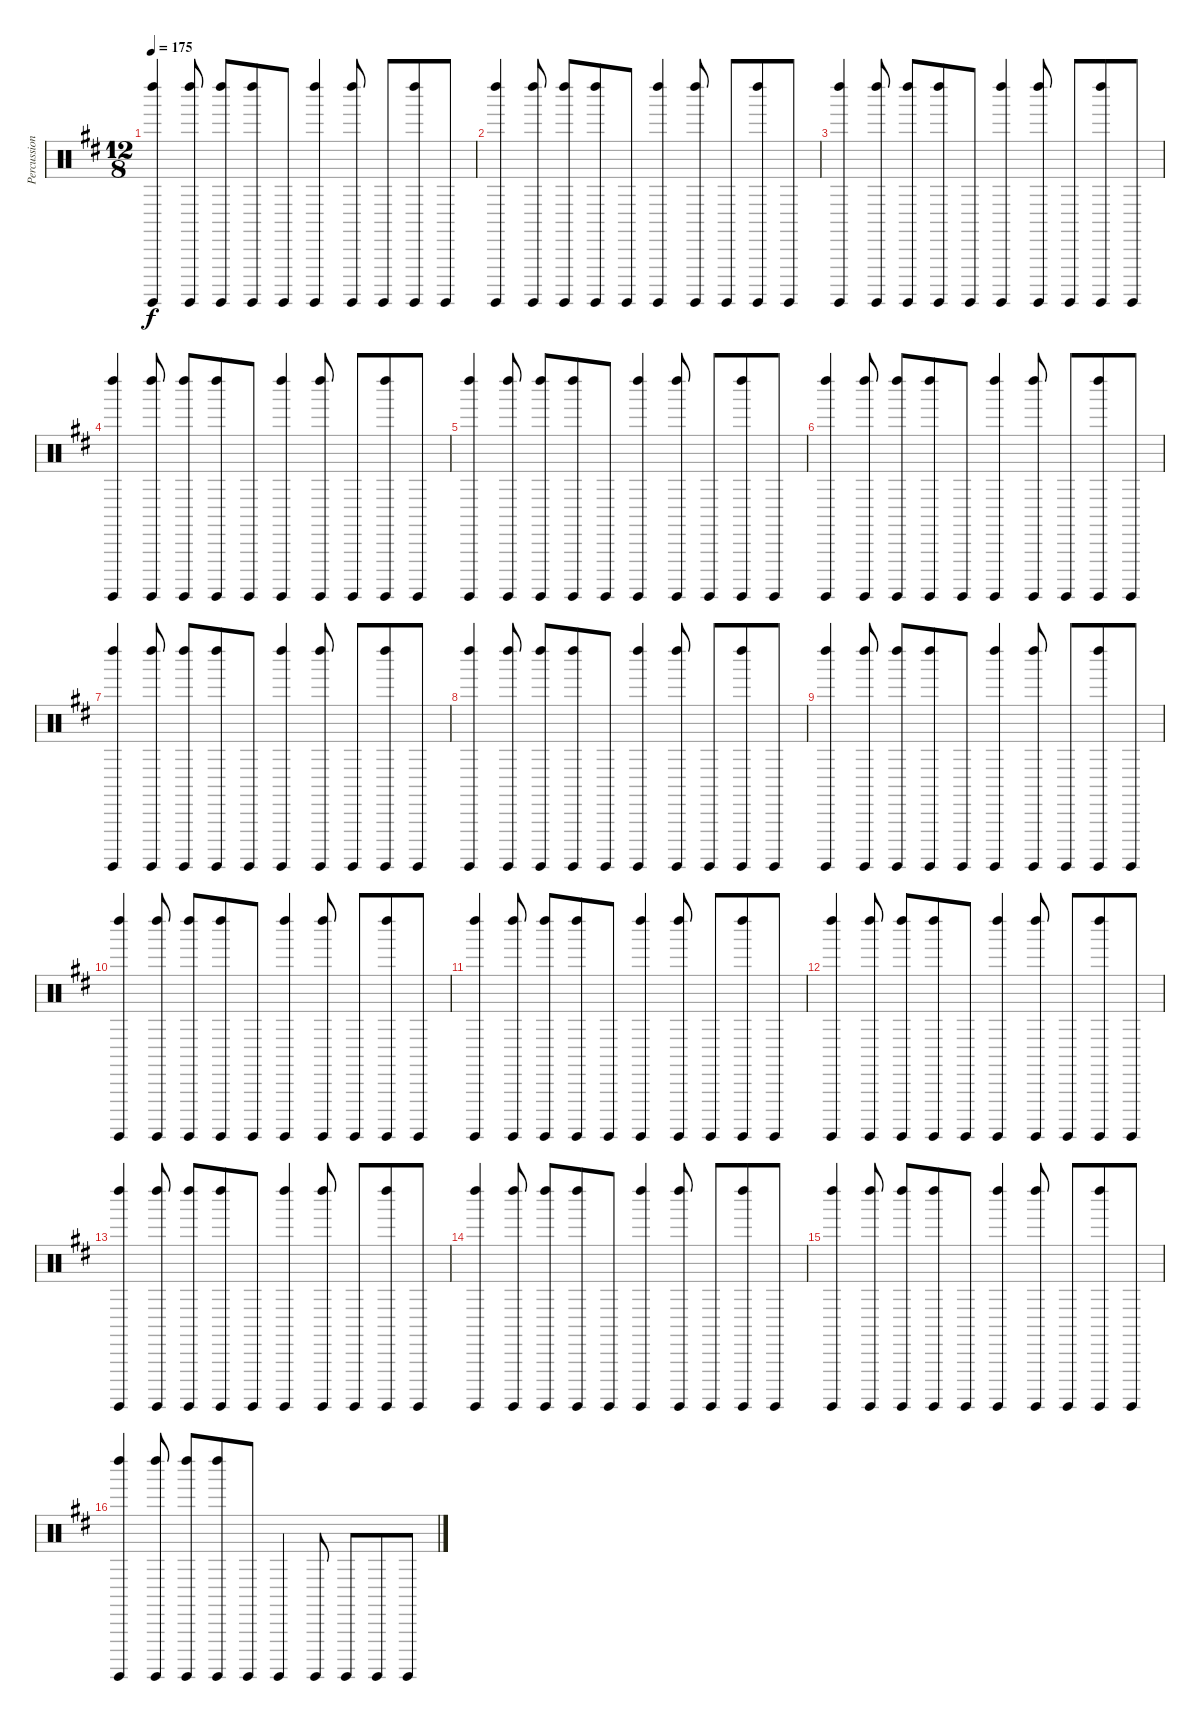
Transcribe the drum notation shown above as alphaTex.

\track ("Percussion" "Percussion") {instrument percussion}
\staff {score}
\articulation defaults
\ts (12 8)
\tempo 175
\clef neutral
\ks d
("Surdo (hit)" "Left Maraca (hit)").4{dy f} ("Surdo (hit)" "Left Maraca (hit)").8 ("Surdo (hit)" "Left Maraca (hit)").8 ("Surdo (hit)" "Left Maraca (hit)").8 "Surdo (hit)".8 ("Surdo (hit)" "Left Maraca (hit)").4 ("Surdo (hit)" "Left Maraca (hit)").8 "Surdo (hit)".8 ("Surdo (hit)" "Left Maraca (hit)").8 "Surdo (hit)".8 |
("Surdo (hit)" "Left Maraca (hit)").4 ("Surdo (hit)" "Left Maraca (hit)").8 ("Surdo (hit)" "Left Maraca (hit)").8 ("Surdo (hit)" "Left Maraca (hit)").8 "Surdo (hit)".8 ("Surdo (hit)" "Left Maraca (hit)").4 ("Surdo (hit)" "Left Maraca (hit)").8 "Surdo (hit)".8 ("Surdo (hit)" "Left Maraca (hit)").8 "Surdo (hit)".8 |
("Surdo (hit)" "Left Maraca (hit)").4 ("Surdo (hit)" "Left Maraca (hit)").8 ("Surdo (hit)" "Left Maraca (hit)").8 ("Surdo (hit)" "Left Maraca (hit)").8 "Surdo (hit)".8 ("Surdo (hit)" "Left Maraca (hit)").4 ("Surdo (hit)" "Left Maraca (hit)").8 "Surdo (hit)".8 ("Surdo (hit)" "Left Maraca (hit)").8 "Surdo (hit)".8 |
("Surdo (hit)" "Left Maraca (hit)").4 ("Surdo (hit)" "Left Maraca (hit)").8 ("Surdo (hit)" "Left Maraca (hit)").8 ("Surdo (hit)" "Left Maraca (hit)").8 "Surdo (hit)".8 ("Surdo (hit)" "Left Maraca (hit)").4 ("Surdo (hit)" "Left Maraca (hit)").8 "Surdo (hit)".8 ("Surdo (hit)" "Left Maraca (hit)").8 "Surdo (hit)".8 |
("Surdo (hit)" "Left Maraca (hit)").4 ("Surdo (hit)" "Left Maraca (hit)").8 ("Surdo (hit)" "Left Maraca (hit)").8 ("Surdo (hit)" "Left Maraca (hit)").8 "Surdo (hit)".8 ("Surdo (hit)" "Left Maraca (hit)").4 ("Surdo (hit)" "Left Maraca (hit)").8 "Surdo (hit)".8 ("Surdo (hit)" "Left Maraca (hit)").8 "Surdo (hit)".8 |
("Surdo (hit)" "Left Maraca (hit)").4 ("Surdo (hit)" "Left Maraca (hit)").8 ("Surdo (hit)" "Left Maraca (hit)").8 ("Surdo (hit)" "Left Maraca (hit)").8 "Surdo (hit)".8 ("Surdo (hit)" "Left Maraca (hit)").4 ("Surdo (hit)" "Left Maraca (hit)").8 "Surdo (hit)".8 ("Surdo (hit)" "Left Maraca (hit)").8 "Surdo (hit)".8 |
("Surdo (hit)" "Left Maraca (hit)").4 ("Surdo (hit)" "Left Maraca (hit)").8 ("Surdo (hit)" "Left Maraca (hit)").8 ("Surdo (hit)" "Left Maraca (hit)").8 "Surdo (hit)".8 ("Surdo (hit)" "Left Maraca (hit)").4 ("Surdo (hit)" "Left Maraca (hit)").8 "Surdo (hit)".8 ("Surdo (hit)" "Left Maraca (hit)").8 "Surdo (hit)".8 |
("Surdo (hit)" "Left Maraca (hit)").4 ("Surdo (hit)" "Left Maraca (hit)").8 ("Surdo (hit)" "Left Maraca (hit)").8 ("Surdo (hit)" "Left Maraca (hit)").8 "Surdo (hit)".8 ("Surdo (hit)" "Left Maraca (hit)").4 ("Surdo (hit)" "Left Maraca (hit)").8 "Surdo (hit)".8 ("Surdo (hit)" "Left Maraca (hit)").8 "Surdo (hit)".8 |
("Surdo (hit)" "Left Maraca (hit)").4 ("Surdo (hit)" "Left Maraca (hit)").8 ("Surdo (hit)" "Left Maraca (hit)").8 ("Surdo (hit)" "Left Maraca (hit)").8 "Surdo (hit)".8 ("Surdo (hit)" "Left Maraca (hit)").4 ("Surdo (hit)" "Left Maraca (hit)").8 "Surdo (hit)".8 ("Surdo (hit)" "Left Maraca (hit)").8 "Surdo (hit)".8 |
("Surdo (hit)" "Left Maraca (hit)").4 ("Surdo (hit)" "Left Maraca (hit)").8 ("Surdo (hit)" "Left Maraca (hit)").8 ("Surdo (hit)" "Left Maraca (hit)").8 "Surdo (hit)".8 ("Surdo (hit)" "Left Maraca (hit)").4 ("Surdo (hit)" "Left Maraca (hit)").8 "Surdo (hit)".8 ("Surdo (hit)" "Left Maraca (hit)").8 "Surdo (hit)".8 |
("Surdo (hit)" "Left Maraca (hit)").4 ("Surdo (hit)" "Left Maraca (hit)").8 ("Surdo (hit)" "Left Maraca (hit)").8 ("Surdo (hit)" "Left Maraca (hit)").8 "Surdo (hit)".8 ("Surdo (hit)" "Left Maraca (hit)").4 ("Surdo (hit)" "Left Maraca (hit)").8 "Surdo (hit)".8 ("Surdo (hit)" "Left Maraca (hit)").8 "Surdo (hit)".8 |
("Surdo (hit)" "Left Maraca (hit)").4 ("Surdo (hit)" "Left Maraca (hit)").8 ("Surdo (hit)" "Left Maraca (hit)").8 ("Surdo (hit)" "Left Maraca (hit)").8 "Surdo (hit)".8 ("Surdo (hit)" "Left Maraca (hit)").4 ("Surdo (hit)" "Left Maraca (hit)").8 "Surdo (hit)".8 ("Surdo (hit)" "Left Maraca (hit)").8 "Surdo (hit)".8 |
("Surdo (hit)" "Left Maraca (hit)").4 ("Surdo (hit)" "Left Maraca (hit)").8 ("Surdo (hit)" "Left Maraca (hit)").8 ("Surdo (hit)" "Left Maraca (hit)").8 "Surdo (hit)".8 ("Surdo (hit)" "Left Maraca (hit)").4 ("Surdo (hit)" "Left Maraca (hit)").8 "Surdo (hit)".8 ("Surdo (hit)" "Left Maraca (hit)").8 "Surdo (hit)".8 |
("Surdo (hit)" "Left Maraca (hit)").4 ("Surdo (hit)" "Left Maraca (hit)").8 ("Surdo (hit)" "Left Maraca (hit)").8 ("Surdo (hit)" "Left Maraca (hit)").8 "Surdo (hit)".8 ("Surdo (hit)" "Left Maraca (hit)").4 ("Surdo (hit)" "Left Maraca (hit)").8 "Surdo (hit)".8 ("Surdo (hit)" "Left Maraca (hit)").8 "Surdo (hit)".8 |
("Surdo (hit)" "Left Maraca (hit)").4 ("Surdo (hit)" "Left Maraca (hit)").8 ("Surdo (hit)" "Left Maraca (hit)").8 ("Surdo (hit)" "Left Maraca (hit)").8 "Surdo (hit)".8 ("Surdo (hit)" "Left Maraca (hit)").4 ("Surdo (hit)" "Left Maraca (hit)").8 "Surdo (hit)".8 ("Surdo (hit)" "Left Maraca (hit)").8 "Surdo (hit)".8 |
("Surdo (hit)" "Left Maraca (hit)").4 ("Surdo (hit)" "Left Maraca (hit)").8 ("Surdo (hit)" "Left Maraca (hit)").8 ("Surdo (hit)" "Left Maraca (hit)").8 "Surdo (hit)".8 "Surdo (hit)".4 "Surdo (hit)".8 "Surdo (hit)".8 "Surdo (hit)".8 "Surdo (hit)".8
